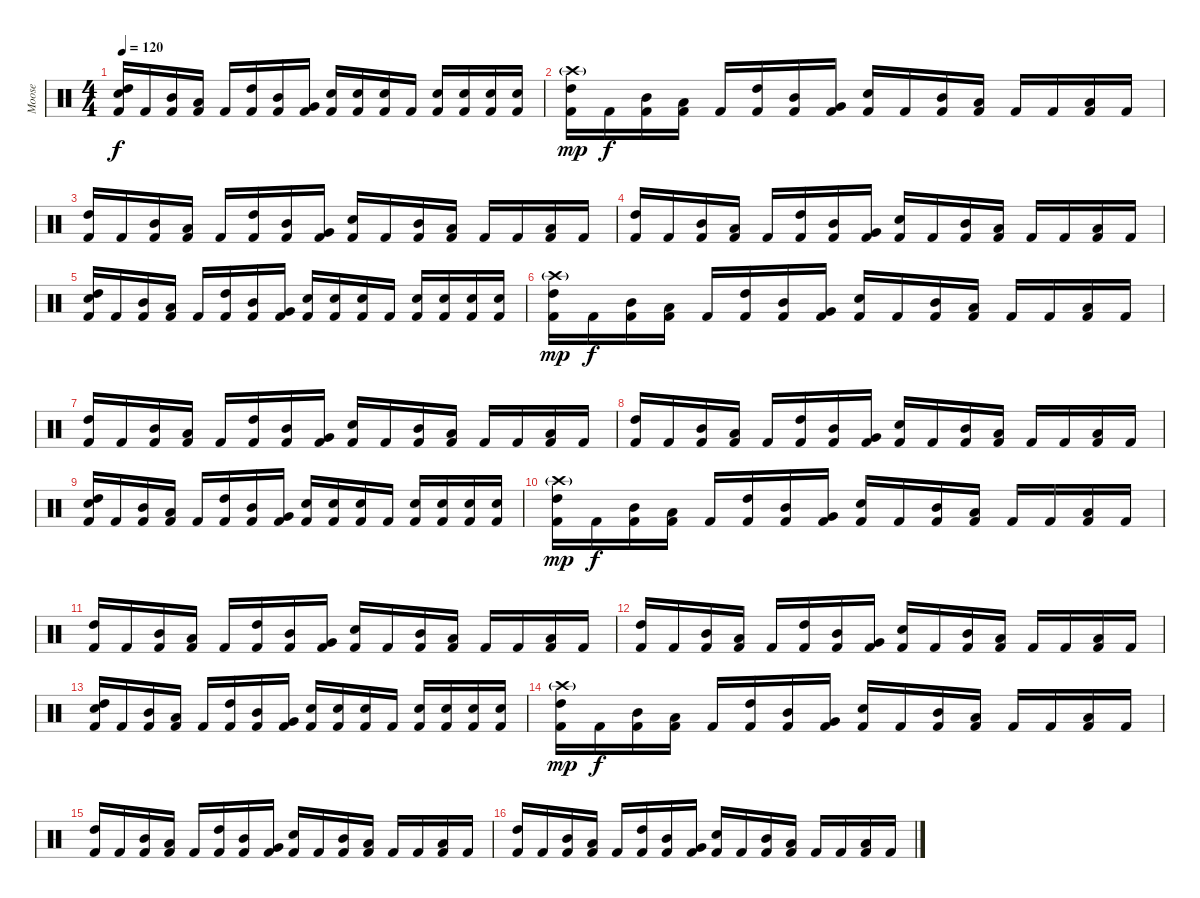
\track ("Moose" "Moose") {instrument percussion}
\staff {score}
\articulation defaults
\ts (4 4)
\tempo 120
\clef neutral
\ks c
("High Tom (hit)" "Snare (hit) 2" "Kick (hit) 2").16{dy f} "Kick (hit) 2".16 ("Mid Tom (hit)" "Kick (hit) 2").16 ("Low Tom (hit)" "Kick (hit) 2").16 "Kick (hit) 2".16 ("High Tom (hit)" "Kick (hit) 2").16 ("Mid Tom (hit)" "Kick (hit) 2").16 ("Very Low Tom (hit)" "Kick (hit) 2").16 ("Snare (hit) 2" "Kick (hit) 2").16 ("Snare (hit) 2" "Kick (hit) 2").16 ("Snare (hit) 2" "Kick (hit) 2").16 "Kick (hit) 2".16 ("Snare (hit) 2" "Kick (hit) 2").16 ("Snare (hit) 2" "Kick (hit) 2").16 ("Snare (hit) 2" "Kick (hit) 2").16 ("Snare (hit) 2" "Kick (hit) 2").16 |
("Crash high (hit)"{g} "High Tom (hit)" "Kick (hit) 2").16{dy mp} "Kick (hit) 2".16{dy f} ("Mid Tom (hit)" "Kick (hit) 2").16 ("Low Tom (hit)" "Kick (hit) 2").16 "Kick (hit) 2".16 ("High Tom (hit)" "Kick (hit) 2").16 ("Mid Tom (hit)" "Kick (hit) 2").16 ("Very Low Tom (hit)" "Kick (hit) 2").16 ("Snare (hit) 2" "Kick (hit) 2").16 "Kick (hit) 2".16 ("Mid Tom (hit)" "Kick (hit) 2").16 ("Low Tom (hit)" "Kick (hit) 2").16 "Kick (hit) 2".16 "Kick (hit) 2".16 ("Low Tom (hit)" "Kick (hit) 2").16 "Kick (hit) 2".16 |
("High Tom (hit)" "Kick (hit) 2").16 "Kick (hit) 2".16 ("Mid Tom (hit)" "Kick (hit) 2").16 ("Low Tom (hit)" "Kick (hit) 2").16 "Kick (hit) 2".16 ("High Tom (hit)" "Kick (hit) 2").16 ("Mid Tom (hit)" "Kick (hit) 2").16 ("Very Low Tom (hit)" "Kick (hit) 2").16 ("Snare (hit) 2" "Kick (hit) 2").16 "Kick (hit) 2".16 ("Mid Tom (hit)" "Kick (hit) 2").16 ("Low Tom (hit)" "Kick (hit) 2").16 "Kick (hit) 2".16 "Kick (hit) 2".16 ("Low Tom (hit)" "Kick (hit) 2").16 "Kick (hit) 2".16 |
("High Tom (hit)" "Kick (hit) 2").16 "Kick (hit) 2".16 ("Mid Tom (hit)" "Kick (hit) 2").16 ("Low Tom (hit)" "Kick (hit) 2").16 "Kick (hit) 2".16 ("High Tom (hit)" "Kick (hit) 2").16 ("Mid Tom (hit)" "Kick (hit) 2").16 ("Very Low Tom (hit)" "Kick (hit) 2").16 ("Snare (hit) 2" "Kick (hit) 2").16 "Kick (hit) 2".16 ("Mid Tom (hit)" "Kick (hit) 2").16 ("Low Tom (hit)" "Kick (hit) 2").16 "Kick (hit) 2".16 "Kick (hit) 2".16 ("Low Tom (hit)" "Kick (hit) 2").16 "Kick (hit) 2".16 |
("High Tom (hit)" "Snare (hit) 2" "Kick (hit) 2").16 "Kick (hit) 2".16 ("Mid Tom (hit)" "Kick (hit) 2").16 ("Low Tom (hit)" "Kick (hit) 2").16 "Kick (hit) 2".16 ("High Tom (hit)" "Kick (hit) 2").16 ("Mid Tom (hit)" "Kick (hit) 2").16 ("Very Low Tom (hit)" "Kick (hit) 2").16 ("Snare (hit) 2" "Kick (hit) 2").16 ("Snare (hit) 2" "Kick (hit) 2").16 ("Snare (hit) 2" "Kick (hit) 2").16 "Kick (hit) 2".16 ("Snare (hit) 2" "Kick (hit) 2").16 ("Snare (hit) 2" "Kick (hit) 2").16 ("Snare (hit) 2" "Kick (hit) 2").16 ("Snare (hit) 2" "Kick (hit) 2").16 |
("Crash high (hit)"{g} "High Tom (hit)" "Kick (hit) 2").16{dy mp} "Kick (hit) 2".16{dy f} ("Mid Tom (hit)" "Kick (hit) 2").16 ("Low Tom (hit)" "Kick (hit) 2").16 "Kick (hit) 2".16 ("High Tom (hit)" "Kick (hit) 2").16 ("Mid Tom (hit)" "Kick (hit) 2").16 ("Very Low Tom (hit)" "Kick (hit) 2").16 ("Snare (hit) 2" "Kick (hit) 2").16 "Kick (hit) 2".16 ("Mid Tom (hit)" "Kick (hit) 2").16 ("Low Tom (hit)" "Kick (hit) 2").16 "Kick (hit) 2".16 "Kick (hit) 2".16 ("Low Tom (hit)" "Kick (hit) 2").16 "Kick (hit) 2".16 |
("High Tom (hit)" "Kick (hit) 2").16 "Kick (hit) 2".16 ("Mid Tom (hit)" "Kick (hit) 2").16 ("Low Tom (hit)" "Kick (hit) 2").16 "Kick (hit) 2".16 ("High Tom (hit)" "Kick (hit) 2").16 ("Mid Tom (hit)" "Kick (hit) 2").16 ("Very Low Tom (hit)" "Kick (hit) 2").16 ("Snare (hit) 2" "Kick (hit) 2").16 "Kick (hit) 2".16 ("Mid Tom (hit)" "Kick (hit) 2").16 ("Low Tom (hit)" "Kick (hit) 2").16 "Kick (hit) 2".16 "Kick (hit) 2".16 ("Low Tom (hit)" "Kick (hit) 2").16 "Kick (hit) 2".16 |
("High Tom (hit)" "Kick (hit) 2").16 "Kick (hit) 2".16 ("Mid Tom (hit)" "Kick (hit) 2").16 ("Low Tom (hit)" "Kick (hit) 2").16 "Kick (hit) 2".16 ("High Tom (hit)" "Kick (hit) 2").16 ("Mid Tom (hit)" "Kick (hit) 2").16 ("Very Low Tom (hit)" "Kick (hit) 2").16 ("Snare (hit) 2" "Kick (hit) 2").16 "Kick (hit) 2".16 ("Mid Tom (hit)" "Kick (hit) 2").16 ("Low Tom (hit)" "Kick (hit) 2").16 "Kick (hit) 2".16 "Kick (hit) 2".16 ("Low Tom (hit)" "Kick (hit) 2").16 "Kick (hit) 2".16 |
("High Tom (hit)" "Snare (hit) 2" "Kick (hit) 2").16 "Kick (hit) 2".16 ("Mid Tom (hit)" "Kick (hit) 2").16 ("Low Tom (hit)" "Kick (hit) 2").16 "Kick (hit) 2".16 ("High Tom (hit)" "Kick (hit) 2").16 ("Mid Tom (hit)" "Kick (hit) 2").16 ("Very Low Tom (hit)" "Kick (hit) 2").16 ("Snare (hit) 2" "Kick (hit) 2").16 ("Snare (hit) 2" "Kick (hit) 2").16 ("Snare (hit) 2" "Kick (hit) 2").16 "Kick (hit) 2".16 ("Snare (hit) 2" "Kick (hit) 2").16 ("Snare (hit) 2" "Kick (hit) 2").16 ("Snare (hit) 2" "Kick (hit) 2").16 ("Snare (hit) 2" "Kick (hit) 2").16 |
("Crash high (hit)"{g} "High Tom (hit)" "Kick (hit) 2").16{dy mp} "Kick (hit) 2".16{dy f} ("Mid Tom (hit)" "Kick (hit) 2").16 ("Low Tom (hit)" "Kick (hit) 2").16 "Kick (hit) 2".16 ("High Tom (hit)" "Kick (hit) 2").16 ("Mid Tom (hit)" "Kick (hit) 2").16 ("Very Low Tom (hit)" "Kick (hit) 2").16 ("Snare (hit) 2" "Kick (hit) 2").16 "Kick (hit) 2".16 ("Mid Tom (hit)" "Kick (hit) 2").16 ("Low Tom (hit)" "Kick (hit) 2").16 "Kick (hit) 2".16 "Kick (hit) 2".16 ("Low Tom (hit)" "Kick (hit) 2").16 "Kick (hit) 2".16 |
("High Tom (hit)" "Kick (hit) 2").16 "Kick (hit) 2".16 ("Mid Tom (hit)" "Kick (hit) 2").16 ("Low Tom (hit)" "Kick (hit) 2").16 "Kick (hit) 2".16 ("High Tom (hit)" "Kick (hit) 2").16 ("Mid Tom (hit)" "Kick (hit) 2").16 ("Very Low Tom (hit)" "Kick (hit) 2").16 ("Snare (hit) 2" "Kick (hit) 2").16 "Kick (hit) 2".16 ("Mid Tom (hit)" "Kick (hit) 2").16 ("Low Tom (hit)" "Kick (hit) 2").16 "Kick (hit) 2".16 "Kick (hit) 2".16 ("Low Tom (hit)" "Kick (hit) 2").16 "Kick (hit) 2".16 |
("High Tom (hit)" "Kick (hit) 2").16 "Kick (hit) 2".16 ("Mid Tom (hit)" "Kick (hit) 2").16 ("Low Tom (hit)" "Kick (hit) 2").16 "Kick (hit) 2".16 ("High Tom (hit)" "Kick (hit) 2").16 ("Mid Tom (hit)" "Kick (hit) 2").16 ("Very Low Tom (hit)" "Kick (hit) 2").16 ("Snare (hit) 2" "Kick (hit) 2").16 "Kick (hit) 2".16 ("Mid Tom (hit)" "Kick (hit) 2").16 ("Low Tom (hit)" "Kick (hit) 2").16 "Kick (hit) 2".16 "Kick (hit) 2".16 ("Low Tom (hit)" "Kick (hit) 2").16 "Kick (hit) 2".16 |
("High Tom (hit)" "Snare (hit) 2" "Kick (hit) 2").16 "Kick (hit) 2".16 ("Mid Tom (hit)" "Kick (hit) 2").16 ("Low Tom (hit)" "Kick (hit) 2").16 "Kick (hit) 2".16 ("High Tom (hit)" "Kick (hit) 2").16 ("Mid Tom (hit)" "Kick (hit) 2").16 ("Very Low Tom (hit)" "Kick (hit) 2").16 ("Snare (hit) 2" "Kick (hit) 2").16 ("Snare (hit) 2" "Kick (hit) 2").16 ("Snare (hit) 2" "Kick (hit) 2").16 "Kick (hit) 2".16 ("Snare (hit) 2" "Kick (hit) 2").16 ("Snare (hit) 2" "Kick (hit) 2").16 ("Snare (hit) 2" "Kick (hit) 2").16 ("Snare (hit) 2" "Kick (hit) 2").16 |
("Crash high (hit)"{g} "High Tom (hit)" "Kick (hit) 2").16{dy mp} "Kick (hit) 2".16{dy f} ("Mid Tom (hit)" "Kick (hit) 2").16 ("Low Tom (hit)" "Kick (hit) 2").16 "Kick (hit) 2".16 ("High Tom (hit)" "Kick (hit) 2").16 ("Mid Tom (hit)" "Kick (hit) 2").16 ("Very Low Tom (hit)" "Kick (hit) 2").16 ("Snare (hit) 2" "Kick (hit) 2").16 "Kick (hit) 2".16 ("Mid Tom (hit)" "Kick (hit) 2").16 ("Low Tom (hit)" "Kick (hit) 2").16 "Kick (hit) 2".16 "Kick (hit) 2".16 ("Low Tom (hit)" "Kick (hit) 2").16 "Kick (hit) 2".16 |
("High Tom (hit)" "Kick (hit) 2").16 "Kick (hit) 2".16 ("Mid Tom (hit)" "Kick (hit) 2").16 ("Low Tom (hit)" "Kick (hit) 2").16 "Kick (hit) 2".16 ("High Tom (hit)" "Kick (hit) 2").16 ("Mid Tom (hit)" "Kick (hit) 2").16 ("Very Low Tom (hit)" "Kick (hit) 2").16 ("Snare (hit) 2" "Kick (hit) 2").16 "Kick (hit) 2".16 ("Mid Tom (hit)" "Kick (hit) 2").16 ("Low Tom (hit)" "Kick (hit) 2").16 "Kick (hit) 2".16 "Kick (hit) 2".16 ("Low Tom (hit)" "Kick (hit) 2").16 "Kick (hit) 2".16 |
("High Tom (hit)" "Kick (hit) 2").16 "Kick (hit) 2".16 ("Mid Tom (hit)" "Kick (hit) 2").16 ("Low Tom (hit)" "Kick (hit) 2").16 "Kick (hit) 2".16 ("High Tom (hit)" "Kick (hit) 2").16 ("Mid Tom (hit)" "Kick (hit) 2").16 ("Very Low Tom (hit)" "Kick (hit) 2").16 ("Snare (hit) 2" "Kick (hit) 2").16 "Kick (hit) 2".16 ("Mid Tom (hit)" "Kick (hit) 2").16 ("Low Tom (hit)" "Kick (hit) 2").16 "Kick (hit) 2".16 "Kick (hit) 2".16 ("Low Tom (hit)" "Kick (hit) 2").16 "Kick (hit) 2".16
